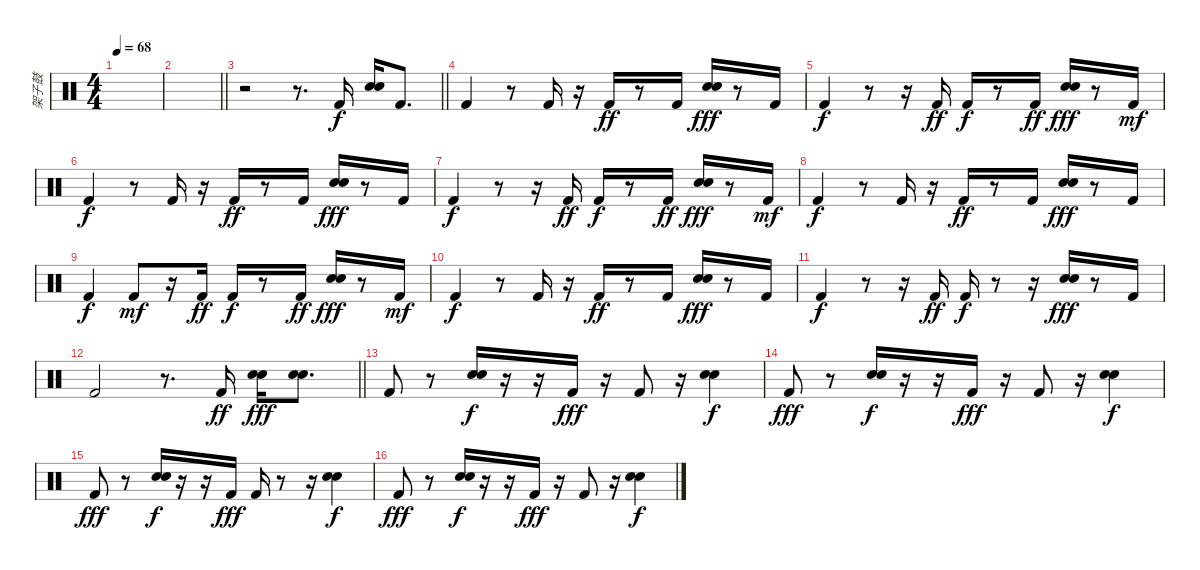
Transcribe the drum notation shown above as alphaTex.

\track ("架子鼓" "架子鼓") {instrument percussion}
\staff {score}
\articulation defaults
\ts (4 4)
\tempo 68
\clef neutral
\ks c
|
\barLineRight lightlight
|
\barLineRight lightlight
r.2{volume 16} r.8{d} "Kick (hit) 2".16{dy f} ("Snare (hit) 2" "Hand Clap (hit)").16 "Kick (hit) 2".8{d} |
"Kick (hit) 2".4 r.8 "Kick (hit) 2".16 r.16 "Kick (hit) 2".16{dy ff} r.8 "Kick (hit) 2".16 ("Snare (hit) 2" "Hand Clap (hit)").16{dy fff} r.8 "Kick (hit) 2".16 |
"Kick (hit) 2".4{dy f} r.8 r.16 "Kick (hit) 2".16{dy ff} "Kick (hit) 2".16{dy f} r.8 "Kick (hit) 2".16{dy ff} ("Snare (hit) 2" "Hand Clap (hit)").16{dy fff} r.8 "Kick (hit) 2".16{dy mf} |
"Kick (hit) 2".4{dy f} r.8 "Kick (hit) 2".16 r.16 "Kick (hit) 2".16{dy ff} r.8 "Kick (hit) 2".16 ("Snare (hit) 2" "Hand Clap (hit)").16{dy fff} r.8 "Kick (hit) 2".16 |
"Kick (hit) 2".4{dy f} r.8 r.16 "Kick (hit) 2".16{dy ff} "Kick (hit) 2".16{dy f} r.8 "Kick (hit) 2".16{dy ff} ("Snare (hit) 2" "Hand Clap (hit)").16{dy fff} r.8 "Kick (hit) 2".16{dy mf} |
"Kick (hit) 2".4{dy f} r.8 "Kick (hit) 2".16 r.16 "Kick (hit) 2".16{dy ff} r.8 "Kick (hit) 2".16 ("Snare (hit) 2" "Hand Clap (hit)").16{dy fff} r.8 "Kick (hit) 2".16 |
"Kick (hit) 2".4{dy f} "Kick (hit) 2".8{dy mf} r.16 "Kick (hit) 2".16{dy ff} "Kick (hit) 2".16{dy f} r.8 "Kick (hit) 2".16{dy ff} ("Snare (hit) 2" "Hand Clap (hit)").16{dy fff} r.8 "Kick (hit) 2".16{dy mf} |
"Kick (hit) 2".4{dy f} r.8 "Kick (hit) 2".16 r.16 "Kick (hit) 2".16{dy ff} r.8 "Kick (hit) 2".16 ("Snare (hit) 2" "Hand Clap (hit)").16{dy fff} r.8 "Kick (hit) 2".16 |
"Kick (hit) 2".4{dy f} r.8 r.16 "Kick (hit) 2".16{dy ff} "Kick (hit) 2".16{dy f} r.8 r.16 ("Snare (hit) 2" "Hand Clap (hit)").16{dy fff} r.8 "Kick (hit) 2".16 |
\barLineRight lightlight "Kick (hit) 2".2
r.8{d} "Kick (hit) 2".16{dy ff} ("Snare (hit) 2" "Hand Clap (hit)").16{dy fff} ("Snare (hit) 2" "Hand Clap (hit)").8{d} |
"Kick (hit) 2".8 r.8 ("Snare (hit) 2" "Hand Clap (hit)").16{dy f} r.16 r.16 "Kick (hit) 2".16{dy fff} r.16 "Kick (hit) 2".8 r.16 ("Snare (hit) 2" "Hand Clap (hit)").4{dy f} |
"Kick (hit) 2".8{dy fff} r.8 ("Snare (hit) 2" "Hand Clap (hit)").16{dy f} r.16 r.16 "Kick (hit) 2".16{dy fff} r.16 "Kick (hit) 2".8 r.16 ("Snare (hit) 2" "Hand Clap (hit)").4{dy f} |
"Kick (hit) 2".8{dy fff} r.8 ("Snare (hit) 2" "Hand Clap (hit)").16{dy f} r.16 r.16 "Kick (hit) 2".16{dy fff} "Kick (hit) 2".16 r.8 r.16 ("Snare (hit) 2" "Hand Clap (hit)").4{dy f} |
"Kick (hit) 2".8{dy fff} r.8 ("Snare (hit) 2" "Hand Clap (hit)").16{dy f} r.16 r.16 "Kick (hit) 2".16{dy fff} r.16 "Kick (hit) 2".8 r.16 ("Snare (hit) 2" "Hand Clap (hit)").4{dy f}
